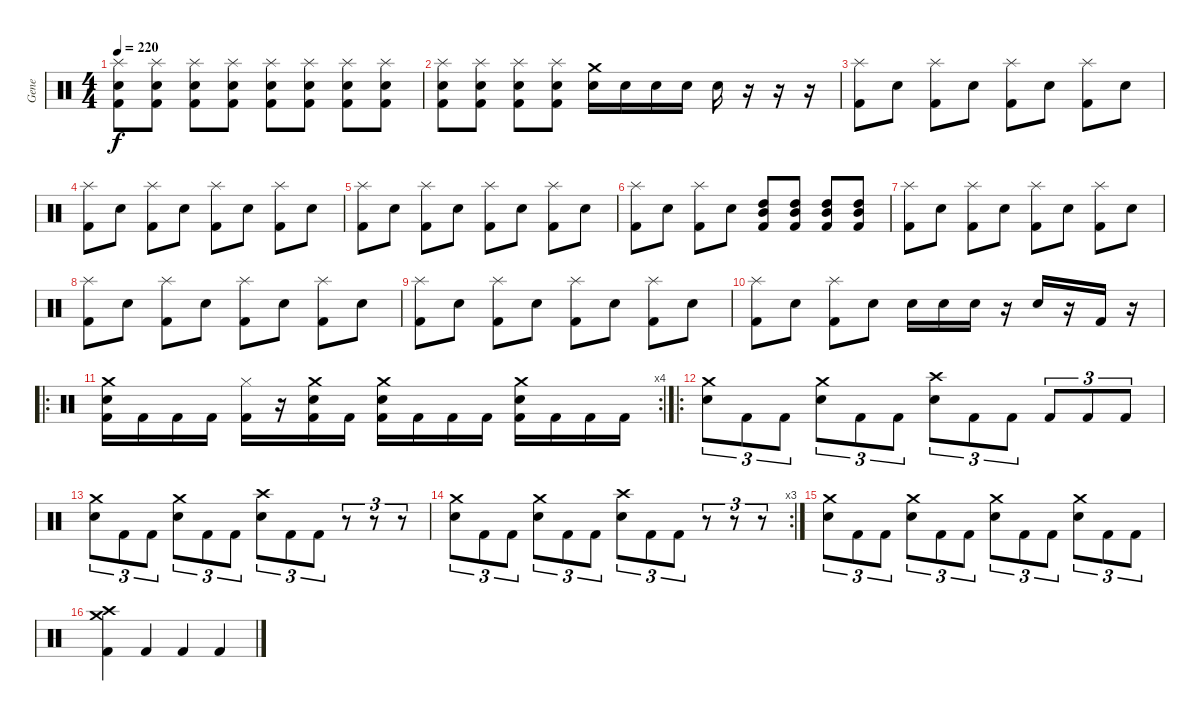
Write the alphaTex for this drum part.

\track ("Gene" "Gene") {instrument percussion}
\staff {score}
\articulation defaults
\ts (4 4)
\tempo 220
\clef neutral
\ks c
("Splash (hit)" "Electric Snare (hit)" "Kick (hit) 2").8{dy f} ("Splash (hit)" "Electric Snare (hit)" "Kick (hit) 2").8 ("Splash (hit)" "Electric Snare (hit)" "Kick (hit) 2").8 ("Splash (hit)" "Electric Snare (hit)" "Kick (hit) 2").8 ("Splash (hit)" "Electric Snare (hit)" "Kick (hit) 2").8 ("Splash (hit)" "Electric Snare (hit)" "Kick (hit) 2").8 ("Splash (hit)" "Electric Snare (hit)" "Kick (hit) 2").8 ("Splash (hit)" "Electric Snare (hit)" "Kick (hit) 2").8 |
("Splash (hit)" "Electric Snare (hit)" "Kick (hit) 2").8 ("Splash (hit)" "Electric Snare (hit)" "Kick (hit) 2").8 ("Splash (hit)" "Electric Snare (hit)" "Kick (hit) 2").8 ("Splash (hit)" "Electric Snare (hit)" "Kick (hit) 2").8 ("Crash medium (hit)" "Electric Snare (hit)").16 "Electric Snare (hit)".16 "Electric Snare (hit)".16 "Electric Snare (hit)".16 "Electric Snare (hit)".16 r.16 r.16 r.16 |
("Splash (hit)" "Kick (hit) 2").8 "Electric Snare (hit)".8 ("Splash (hit)" "Kick (hit) 2").8 "Electric Snare (hit)".8 ("Splash (hit)" "Kick (hit) 2").8 "Electric Snare (hit)".8 ("Splash (hit)" "Kick (hit) 2").8 "Electric Snare (hit)".8 |
("Splash (hit)" "Kick (hit) 2").8 "Electric Snare (hit)".8 ("Splash (hit)" "Kick (hit) 2").8 "Electric Snare (hit)".8 ("Splash (hit)" "Kick (hit) 2").8 "Electric Snare (hit)".8 ("Splash (hit)" "Kick (hit) 2").8 "Electric Snare (hit)".8 |
("Splash (hit)" "Kick (hit) 2").8 "Electric Snare (hit)".8 ("Splash (hit)" "Kick (hit) 2").8 "Electric Snare (hit)".8 ("Splash (hit)" "Kick (hit) 2").8 "Electric Snare (hit)".8 ("Splash (hit)" "Kick (hit) 2").8 "Electric Snare (hit)".8 |
("Splash (hit)" "Kick (hit) 2").8 "Electric Snare (hit)".8 ("Splash (hit)" "Kick (hit) 2").8 "Electric Snare (hit)".8 ("High Tom (hit)" "Mid Tom (hit)" "Kick (hit) 2").8 ("High Tom (hit)" "Mid Tom (hit)" "Kick (hit) 2").8 ("High Tom (hit)" "Mid Tom (hit)" "Kick (hit) 2").8 ("High Tom (hit)" "Mid Tom (hit)" "Kick (hit) 2").8 |
("Splash (hit)" "Kick (hit) 2").8 "Electric Snare (hit)".8 ("Splash (hit)" "Kick (hit) 2").8 "Electric Snare (hit)".8 ("Splash (hit)" "Kick (hit) 2").8 "Electric Snare (hit)".8 ("Splash (hit)" "Kick (hit) 2").8 "Electric Snare (hit)".8 |
("Splash (hit)" "Kick (hit) 2").8 "Electric Snare (hit)".8 ("Splash (hit)" "Kick (hit) 2").8 "Electric Snare (hit)".8 ("Splash (hit)" "Kick (hit) 2").8 "Electric Snare (hit)".8 ("Splash (hit)" "Kick (hit) 2").8 "Electric Snare (hit)".8 |
("Splash (hit)" "Kick (hit) 2").8 "Electric Snare (hit)".8 ("Splash (hit)" "Kick (hit) 2").8 "Electric Snare (hit)".8 ("Splash (hit)" "Kick (hit) 2").8 "Electric Snare (hit)".8 ("Splash (hit)" "Kick (hit) 2").8 "Electric Snare (hit)".8 |
("Splash (hit)" "Kick (hit) 2").8 "Electric Snare (hit)".8 ("Splash (hit)" "Kick (hit) 2").8 "Electric Snare (hit)".8 "Electric Snare (hit)".16 "Electric Snare (hit)".16 "Electric Snare (hit)".16 r.16 "Electric Snare (hit)".16 r.16 "Kick (hit) 2".16 r.16 |
\ro
\rc 4
("Crash medium (hit)" "Electric Snare (hit)" "Kick (hit) 2").16 "Kick (hit) 2".16 "Kick (hit) 2".16 "Kick (hit) 2".16 ("Hi-Hat (closed)" "Kick (hit) 2").16 r.16 ("Crash medium (hit)" "Electric Snare (hit)" "Kick (hit) 2").16 "Kick (hit) 2".16 ("Crash medium (hit)" "Electric Snare (hit)" "Kick (hit) 2").16 "Kick (hit) 2".16 "Kick (hit) 2".16 "Kick (hit) 2".16 ("Crash medium (hit)" "Electric Snare (hit)" "Kick (hit) 2").16 "Kick (hit) 2".16 "Kick (hit) 2".16 "Kick (hit) 2".16 |
\ro
("Crash medium (hit)" "Electric Snare (hit)").8{tu (3 2)} "Kick (hit) 2".8{tu (3 2)} "Kick (hit) 2".8{tu (3 2)} ("Crash medium (hit)" "Electric Snare (hit)").8{tu (3 2)} "Kick (hit) 2".8{tu (3 2)} "Kick (hit) 2".8{tu (3 2)} ("Crash high (hit)" "Electric Snare (hit)").8{tu (3 2)} "Kick (hit) 2".8{tu (3 2)} "Kick (hit) 2".8{tu (3 2)} "Kick (hit) 2".8{tu (3 2)} "Kick (hit) 2".8{tu (3 2)} "Kick (hit) 2".8{tu (3 2)} |
("Crash medium (hit)" "Electric Snare (hit)").8{tu (3 2)} "Kick (hit) 2".8{tu (3 2)} "Kick (hit) 2".8{tu (3 2)} ("Crash medium (hit)" "Electric Snare (hit)").8{tu (3 2)} "Kick (hit) 2".8{tu (3 2)} "Kick (hit) 2".8{tu (3 2)} ("Crash high (hit)" "Electric Snare (hit)").8{tu (3 2)} "Kick (hit) 2".8{tu (3 2)} "Kick (hit) 2".8{tu (3 2)} r.8{tu (3 2)} r.8{tu (3 2)} r.8{tu (3 2)} |
\rc 3
("Crash medium (hit)" "Electric Snare (hit)").8{tu (3 2)} "Kick (hit) 2".8{tu (3 2)} "Kick (hit) 2".8{tu (3 2)} ("Crash medium (hit)" "Electric Snare (hit)").8{tu (3 2)} "Kick (hit) 2".8{tu (3 2)} "Kick (hit) 2".8{tu (3 2)} ("Crash high (hit)" "Electric Snare (hit)").8{tu (3 2)} "Kick (hit) 2".8{tu (3 2)} "Kick (hit) 2".8{tu (3 2)} r.8{tu (3 2)} r.8{tu (3 2)} r.8{tu (3 2)} |
("Crash medium (hit)" "Electric Snare (hit)").8{tu (3 2)} "Kick (hit) 2".8{tu (3 2)} "Kick (hit) 2".8{tu (3 2)} ("Crash medium (hit)" "Electric Snare (hit)").8{tu (3 2)} "Kick (hit) 2".8{tu (3 2)} "Kick (hit) 2".8{tu (3 2)} ("Crash medium (hit)" "Electric Snare (hit)").8{tu (3 2)} "Kick (hit) 2".8{tu (3 2)} "Kick (hit) 2".8{tu (3 2)} ("Crash medium (hit)" "Electric Snare (hit)").8{tu (3 2)} "Kick (hit) 2".8{tu (3 2)} "Kick (hit) 2".8{tu (3 2)} |
("Crash medium (hit)" "Crash high (hit)" "Kick (hit) 2").4 "Kick (hit) 2".4 "Kick (hit) 2".4 "Kick (hit) 2".4
